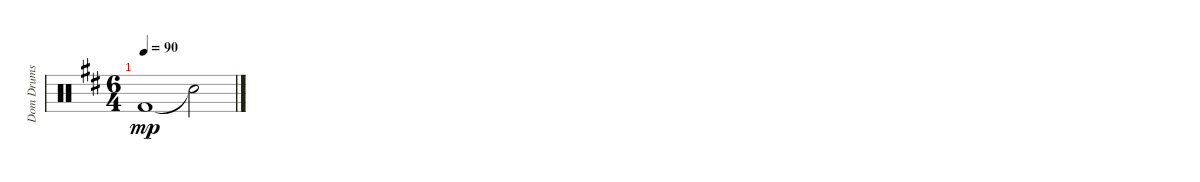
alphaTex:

\track ("Dom Drums" "Dom Drums") {instrument percussion}
\staff {score}
\articulation defaults
\ts (6 4)
\tempo 90
\clef neutral
\ks bminor "Kick (hit) 2".1{dy mp} "Snare (hit)"{t}.2
